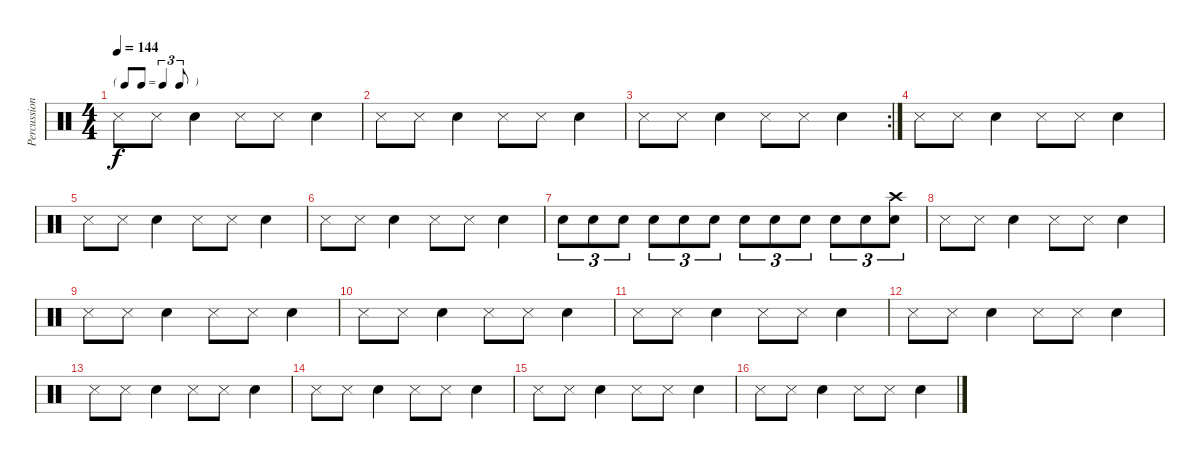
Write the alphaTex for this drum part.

\track ("Percussions" "Percussion") {instrument percussion}
\staff {score}
\articulation defaults
\ts (4 4)
\tf triplet8th
\tempo 144
\clef neutral
\ks c "Snare (side stick) 3".8{dy f} "Snare (side stick) 3".8 "Snare (hit) 2".4 "Snare (side stick) 3".8 "Snare (side stick) 3".8 "Snare (hit) 2".4
|
"Snare (side stick) 3".8 "Snare (side stick) 3".8 "Snare (hit) 2".4 "Snare (side stick) 3".8 "Snare (side stick) 3".8 "Snare (hit) 2".4 |
\rc 2 "Snare (side stick) 3".8 "Snare (side stick) 3".8 "Snare (hit) 2".4 "Snare (side stick) 3".8 "Snare (side stick) 3".8 "Snare (hit) 2".4
|
"Snare (side stick) 3".8 "Snare (side stick) 3".8 "Snare (hit) 2".4 "Snare (side stick) 3".8 "Snare (side stick) 3".8 "Snare (hit) 2".4 |
"Snare (side stick) 3".8 "Snare (side stick) 3".8 "Snare (hit) 2".4 "Snare (side stick) 3".8 "Snare (side stick) 3".8 "Snare (hit) 2".4 |
"Snare (side stick) 3".8 "Snare (side stick) 3".8 "Snare (hit) 2".4 "Snare (side stick) 3".8 "Snare (side stick) 3".8 "Snare (hit) 2".4 |
"Snare (hit) 2".8{tu (3 2)} "Snare (hit) 2".8{tu (3 2)} "Snare (hit) 2".8{tu (3 2)} "Snare (hit) 2".8{tu (3 2)} "Snare (hit) 2".8{tu (3 2)} "Snare (hit) 2".8{tu (3 2)} "Snare (hit) 2".8{tu (3 2)} "Snare (hit) 2".8{tu (3 2)} "Snare (hit) 2".8{tu (3 2)} "Snare (hit) 2".8{tu (3 2)} "Snare (hit) 2".8{tu (3 2)} ("Snare (hit) 2" "Crash high (hit)").8{tu (3 2)} |
"Snare (side stick) 3".8 "Snare (side stick) 3".8 "Snare (hit) 2".4 "Snare (side stick) 3".8 "Snare (side stick) 3".8 "Snare (hit) 2".4 |
"Snare (side stick) 3".8 "Snare (side stick) 3".8 "Snare (hit) 2".4 "Snare (side stick) 3".8 "Snare (side stick) 3".8 "Snare (hit) 2".4 |
"Snare (side stick) 3".8 "Snare (side stick) 3".8 "Snare (hit) 2".4 "Snare (side stick) 3".8 "Snare (side stick) 3".8 "Snare (hit) 2".4 |
"Snare (side stick) 3".8 "Snare (side stick) 3".8 "Snare (hit) 2".4 "Snare (side stick) 3".8 "Snare (side stick) 3".8 "Snare (hit) 2".4 |
"Snare (side stick) 3".8 "Snare (side stick) 3".8 "Snare (hit) 2".4 "Snare (side stick) 3".8 "Snare (side stick) 3".8 "Snare (hit) 2".4 |
"Snare (side stick) 3".8 "Snare (side stick) 3".8 "Snare (hit) 2".4 "Snare (side stick) 3".8 "Snare (side stick) 3".8 "Snare (hit) 2".4 |
"Snare (side stick) 3".8 "Snare (side stick) 3".8 "Snare (hit) 2".4 "Snare (side stick) 3".8 "Snare (side stick) 3".8 "Snare (hit) 2".4 |
"Snare (side stick) 3".8 "Snare (side stick) 3".8 "Snare (hit) 2".4 "Snare (side stick) 3".8 "Snare (side stick) 3".8 "Snare (hit) 2".4 |
"Snare (side stick) 3".8 "Snare (side stick) 3".8 "Snare (hit) 2".4 "Snare (side stick) 3".8 "Snare (side stick) 3".8 "Snare (hit) 2".4
